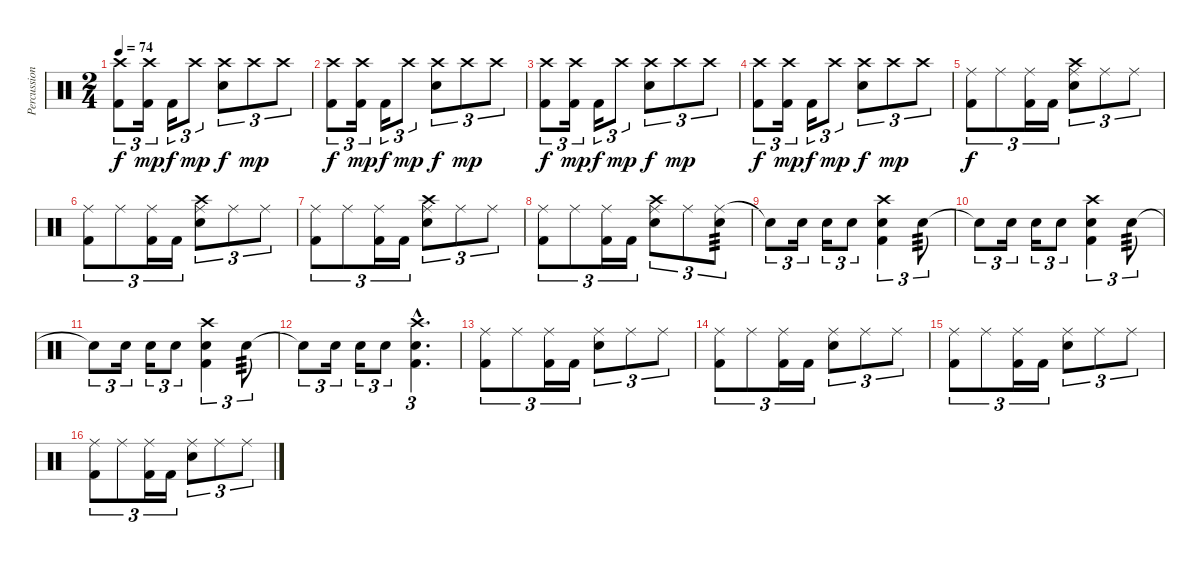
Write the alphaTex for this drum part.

\track ("Percussion" "Percussion") {instrument percussion}
\staff {score}
\articulation defaults
\ts (2 4)
\tempo 74
\clef neutral
\ks c
("Crash high (hit)" "Kick (hit) 2").8{tu (3 2) dy f} ("Crash high (hit)" "Kick (hit) 2").16{tu (3 2) dy mp} "Kick (hit) 2".16{tu (3 2) dy f} "Crash high (hit)".8{tu (3 2) dy mp} ("Crash high (hit)" "Snare (hit) 2").8{tu (3 2) dy f} "Crash high (hit)".8{tu (3 2) dy mp} "Crash high (hit)".8{tu (3 2)} |
("Crash high (hit)" "Kick (hit) 2").8{tu (3 2) dy f} ("Crash high (hit)" "Kick (hit) 2").16{tu (3 2) dy mp} "Kick (hit) 2".16{tu (3 2) dy f} "Crash high (hit)".8{tu (3 2) dy mp} ("Crash high (hit)" "Snare (hit) 2").8{tu (3 2) dy f} "Crash high (hit)".8{tu (3 2) dy mp} "Crash high (hit)".8{tu (3 2)} |
("Crash high (hit)" "Kick (hit) 2").8{tu (3 2) dy f} ("Crash high (hit)" "Kick (hit) 2").16{tu (3 2) dy mp} "Kick (hit) 2".16{tu (3 2) dy f} "Crash high (hit)".8{tu (3 2) dy mp} ("Crash high (hit)" "Snare (hit) 2").8{tu (3 2) dy f} "Crash high (hit)".8{tu (3 2) dy mp} "Crash high (hit)".8{tu (3 2)} |
("Crash high (hit)" "Kick (hit) 2").8{tu (3 2) dy f} ("Crash high (hit)" "Kick (hit) 2").16{tu (3 2) dy mp} "Kick (hit) 2".16{tu (3 2) dy f} "Crash high (hit)".8{tu (3 2) dy mp} ("Crash high (hit)" "Snare (hit) 2").8{tu (3 2) dy f} "Crash high (hit)".8{tu (3 2) dy mp} "Crash high (hit)".8{tu (3 2)} |
("Ride (middle)" "Kick (hit) 2").8{tu (3 2) dy f} "Ride (middle)".8{tu (3 2)} ("Ride (middle)" "Kick (hit) 2").16{tu (3 2)} "Kick (hit) 2".16{tu (3 2)} ("Ride (middle)" "Crash high (hit)" "Snare (hit) 2").8{tu (3 2)} "Ride (middle)".8{tu (3 2)} "Ride (middle)".8{tu (3 2)} |
("Ride (middle)" "Kick (hit) 2").8{tu (3 2)} "Ride (middle)".8{tu (3 2)} ("Ride (middle)" "Kick (hit) 2").16{tu (3 2)} "Kick (hit) 2".16{tu (3 2)} ("Ride (middle)" "Crash high (hit)" "Snare (hit) 2").8{tu (3 2)} "Ride (middle)".8{tu (3 2)} "Ride (middle)".8{tu (3 2)} |
("Ride (middle)" "Kick (hit) 2").8{tu (3 2)} "Ride (middle)".8{tu (3 2)} ("Ride (middle)" "Kick (hit) 2").16{tu (3 2)} "Kick (hit) 2".16{tu (3 2)} ("Ride (middle)" "Crash high (hit)" "Snare (hit) 2").8{tu (3 2)} "Ride (middle)".8{tu (3 2)} "Ride (middle)".8{tu (3 2)} |
("Ride (middle)" "Kick (hit) 2").8{tu (3 2)} "Ride (middle)".8{tu (3 2)} ("Ride (middle)" "Kick (hit) 2").16{tu (3 2)} "Kick (hit) 2".16{tu (3 2)} ("Ride (middle)" "Crash high (hit)" "Snare (hit) 2").8{tu (3 2)} "Ride (middle)".8{tu (3 2)} ("Ride (middle)" "Snare (hit) 2").8{tu (3 2) tp 3} |
"Snare (hit)"{t}.8{tu (3 2)} "Snare (hit) 2".16{tu (3 2)} "Snare (hit) 2".16{tu (3 2)} "Snare (hit) 2".8{tu (3 2)} ("Crash high (hit)" "Kick (hit) 2" "Snare (hit) 2").4{tu (3 2)} "Snare (hit) 2".8{tu (3 2) tp 3} |
"Snare (hit)"{t}.8{tu (3 2)} "Snare (hit) 2".16{tu (3 2)} "Snare (hit) 2".16{tu (3 2)} "Snare (hit) 2".8{tu (3 2)} ("Crash high (hit)" "Kick (hit) 2" "Snare (hit) 2").4{tu (3 2)} "Snare (hit) 2".8{tu (3 2) tp 3} |
"Snare (hit)"{t}.8{tu (3 2)} "Snare (hit) 2".16{tu (3 2)} "Snare (hit) 2".16{tu (3 2)} "Snare (hit) 2".8{tu (3 2)} ("Crash high (hit)" "Kick (hit) 2" "Snare (hit) 2").4{tu (3 2)} "Snare (hit) 2".8{tu (3 2) tp 3} |
"Snare (hit)"{t}.8{tu (3 2)} "Snare (hit) 2".16{tu (3 2)} "Snare (hit) 2".16{tu (3 2)} "Snare (hit) 2".8{tu (3 2)} ("Crash high (hit)"{hac} "Kick (hit) 2"{hac} "Snare (hit) 2"{hac}).4{d tu (3 2)} |
("Ride (middle)" "Kick (hit) 2").8{tu (3 2)} "Ride (middle)".8{tu (3 2)} ("Ride (middle)" "Kick (hit) 2").16{tu (3 2)} "Kick (hit) 2".16{tu (3 2)} ("Ride (middle)" "Snare (hit) 2").8{tu (3 2)} "Ride (middle)".8{tu (3 2)} "Ride (middle)".8{tu (3 2)} |
("Ride (middle)" "Kick (hit) 2").8{tu (3 2)} "Ride (middle)".8{tu (3 2)} ("Ride (middle)" "Kick (hit) 2").16{tu (3 2)} "Kick (hit) 2".16{tu (3 2)} ("Ride (middle)" "Snare (hit) 2").8{tu (3 2)} "Ride (middle)".8{tu (3 2)} "Ride (middle)".8{tu (3 2)} |
("Ride (middle)" "Kick (hit) 2").8{tu (3 2)} "Ride (middle)".8{tu (3 2)} ("Ride (middle)" "Kick (hit) 2").16{tu (3 2)} "Kick (hit) 2".16{tu (3 2)} ("Ride (middle)" "Snare (hit) 2").8{tu (3 2)} "Ride (middle)".8{tu (3 2)} "Ride (middle)".8{tu (3 2)} |
("Ride (middle)" "Kick (hit) 2").8{tu (3 2)} "Ride (middle)".8{tu (3 2)} ("Ride (middle)" "Kick (hit) 2").16{tu (3 2)} "Kick (hit) 2".16{tu (3 2)} ("Ride (middle)" "Snare (hit) 2").8{tu (3 2)} "Ride (middle)".8{tu (3 2)} "Ride (middle)".8{tu (3 2)}
